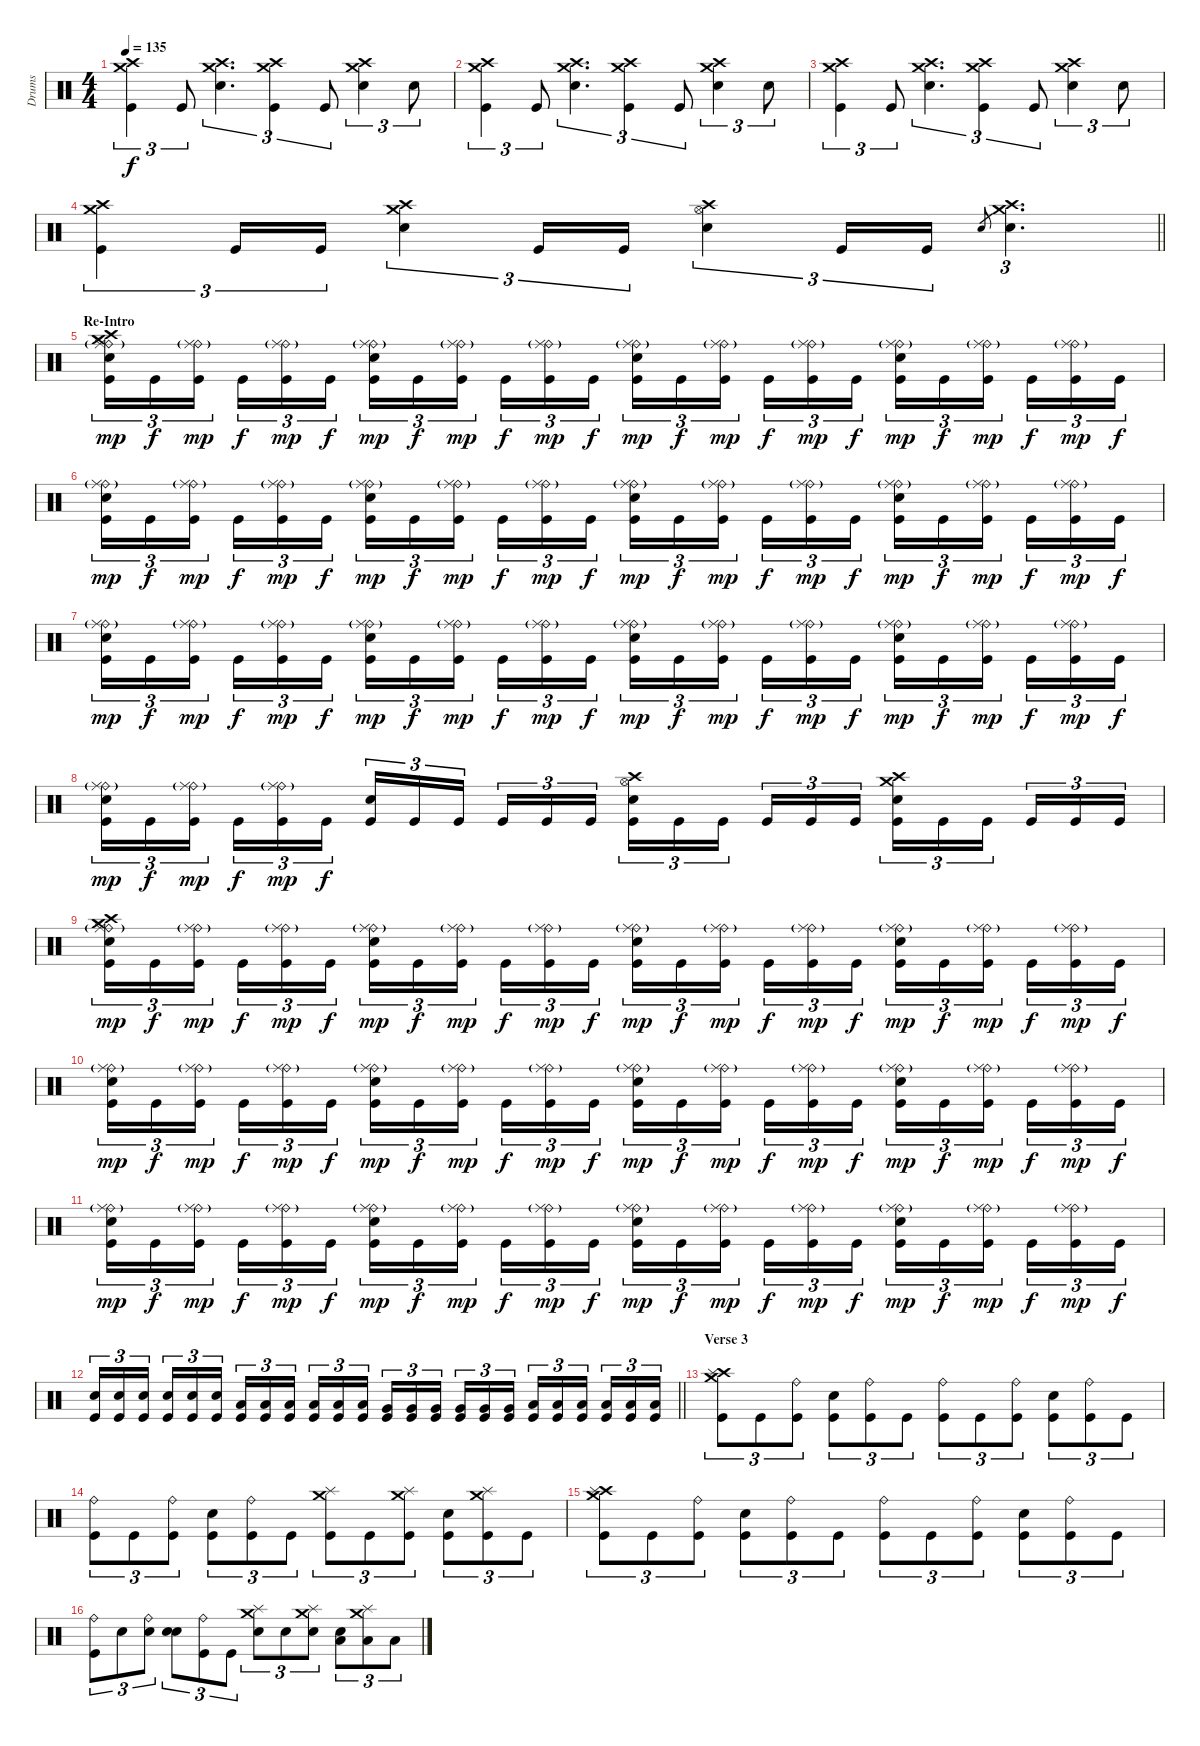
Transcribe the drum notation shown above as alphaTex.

\track ("Drums" "Drums") {instrument percussion}
\staff {score}
\articulation defaults
\ts (4 4)
\tempo 135
\clef neutral
\ks c
("Crash medium (hit)" "Crash high (hit)" "Kick (hit)").4{tu (3 2) dy f} "Kick (hit)".8{tu (3 2)} ("Crash medium (hit)" "Crash high (hit)" "Electric Snare (hit)").4{d tu (3 2)} ("Crash medium (hit)" "Crash high (hit)" "Kick (hit)").4{tu (3 2)} "Kick (hit)".8{tu (3 2)} ("Crash medium (hit)" "Crash high (hit)" "Electric Snare (hit)").4{tu (3 2)} "Electric Snare (hit)".8{tu (3 2)} |
("Crash medium (hit)" "Crash high (hit)" "Kick (hit)").4{tu (3 2)} "Kick (hit)".8{tu (3 2)} ("Crash medium (hit)" "Crash high (hit)" "Electric Snare (hit)").4{d tu (3 2)} ("Crash medium (hit)" "Crash high (hit)" "Kick (hit)").4{tu (3 2)} "Kick (hit)".8{tu (3 2)} ("Crash medium (hit)" "Crash high (hit)" "Electric Snare (hit)").4{tu (3 2)} "Electric Snare (hit)".8{tu (3 2)} |
("Crash medium (hit)" "Crash high (hit)" "Kick (hit)").4{tu (3 2)} "Kick (hit)".8{tu (3 2)} ("Crash medium (hit)" "Crash high (hit)" "Electric Snare (hit)").4{d tu (3 2)} ("Crash medium (hit)" "Crash high (hit)" "Kick (hit)").4{tu (3 2)} "Kick (hit)".8{tu (3 2)} ("Crash medium (hit)" "Crash high (hit)" "Electric Snare (hit)").4{tu (3 2)} "Electric Snare (hit)".8{tu (3 2)} |
\barLineRight lightlight
("Crash medium (hit)" "Crash high (hit)" "Kick (hit)").4{tu (3 2)} "Kick (hit)".16{tu (3 2)} "Kick (hit)".16{tu (3 2)} ("Crash medium (hit)" "Crash high (hit)" "Electric Snare (hit)").4{tu (3 2)} "Kick (hit)".16{tu (3 2)} "Kick (hit)".16{tu (3 2)} ("Hi-Hat (open)" "Crash high (hit)" "Electric Snare (hit)").4{tu (3 2)} "Kick (hit)".16{tu (3 2)} "Kick (hit)".16{tu (3 2)} "Electric Snare (hit)".8{gr} ("Crash medium (hit)" "Crash high (hit)" "Electric Snare (hit)").4{d tu (3 2)} |
\section ("" "Re-Intro")
("Crash high (hit)" "Ride (bell)" "Ride (middle)"{g} "Crash medium (hit)" "Electric Snare (hit)" "Kick (hit)").16{tu (3 2) dy mp} "Kick (hit)".16{tu (3 2) dy f} ("Ride (bell)" "Ride (middle)"{g} "Kick (hit)").16{tu (3 2) dy mp beam splitsecondary} "Kick (hit)".16{tu (3 2) dy f} ("Ride (bell)" "Ride (middle)"{g} "Kick (hit)").16{tu (3 2) dy mp} "Kick (hit)".16{tu (3 2) dy f} ("Ride (bell)" "Ride (middle)"{g} "Electric Snare (hit)" "Kick (hit)").16{tu (3 2) dy mp} "Kick (hit)".16{tu (3 2) dy f} ("Ride (bell)" "Ride (middle)"{g} "Kick (hit)").16{tu (3 2) dy mp beam splitsecondary} "Kick (hit)".16{tu (3 2) dy f} ("Ride (bell)" "Ride (middle)"{g} "Kick (hit)").16{tu (3 2) dy mp} "Kick (hit)".16{tu (3 2) dy f} ("Ride (bell)" "Ride (middle)"{g} "Electric Snare (hit)" "Kick (hit)").16{tu (3 2) dy mp} "Kick (hit)".16{tu (3 2) dy f} ("Ride (bell)" "Ride (middle)"{g} "Kick (hit)").16{tu (3 2) dy mp beam splitsecondary} "Kick (hit)".16{tu (3 2) dy f} ("Ride (bell)" "Ride (middle)"{g} "Kick (hit)").16{tu (3 2) dy mp} "Kick (hit)".16{tu (3 2) dy f} ("Ride (bell)" "Ride (middle)"{g} "Electric Snare (hit)" "Kick (hit)").16{tu (3 2) dy mp} "Kick (hit)".16{tu (3 2) dy f} ("Ride (bell)" "Ride (middle)"{g} "Kick (hit)").16{tu (3 2) dy mp beam splitsecondary} "Kick (hit)".16{tu (3 2) dy f} ("Ride (bell)" "Ride (middle)"{g} "Kick (hit)").16{tu (3 2) dy mp} "Kick (hit)".16{tu (3 2) dy f} |
("Ride (bell)" "Ride (middle)"{g} "Electric Snare (hit)" "Kick (hit)").16{tu (3 2) dy mp} "Kick (hit)".16{tu (3 2) dy f} ("Ride (bell)" "Ride (middle)"{g} "Kick (hit)").16{tu (3 2) dy mp beam splitsecondary} "Kick (hit)".16{tu (3 2) dy f} ("Ride (bell)" "Ride (middle)"{g} "Kick (hit)").16{tu (3 2) dy mp} "Kick (hit)".16{tu (3 2) dy f} ("Ride (bell)" "Ride (middle)"{g} "Electric Snare (hit)" "Kick (hit)").16{tu (3 2) dy mp} "Kick (hit)".16{tu (3 2) dy f} ("Ride (bell)" "Ride (middle)"{g} "Kick (hit)").16{tu (3 2) dy mp beam splitsecondary} "Kick (hit)".16{tu (3 2) dy f} ("Ride (bell)" "Ride (middle)"{g} "Kick (hit)").16{tu (3 2) dy mp} "Kick (hit)".16{tu (3 2) dy f} ("Ride (bell)" "Ride (middle)"{g} "Electric Snare (hit)" "Kick (hit)").16{tu (3 2) dy mp} "Kick (hit)".16{tu (3 2) dy f} ("Ride (bell)" "Ride (middle)"{g} "Kick (hit)").16{tu (3 2) dy mp beam splitsecondary} "Kick (hit)".16{tu (3 2) dy f} ("Ride (bell)" "Ride (middle)"{g} "Kick (hit)").16{tu (3 2) dy mp} "Kick (hit)".16{tu (3 2) dy f} ("Ride (bell)" "Ride (middle)"{g} "Electric Snare (hit)" "Kick (hit)").16{tu (3 2) dy mp} "Kick (hit)".16{tu (3 2) dy f} ("Ride (bell)" "Ride (middle)"{g} "Kick (hit)").16{tu (3 2) dy mp beam splitsecondary} "Kick (hit)".16{tu (3 2) dy f} ("Ride (bell)" "Ride (middle)"{g} "Kick (hit)").16{tu (3 2) dy mp} "Kick (hit)".16{tu (3 2) dy f} |
("Ride (bell)" "Ride (middle)"{g} "Electric Snare (hit)" "Kick (hit)").16{tu (3 2) dy mp} "Kick (hit)".16{tu (3 2) dy f} ("Ride (bell)" "Ride (middle)"{g} "Kick (hit)").16{tu (3 2) dy mp beam splitsecondary} "Kick (hit)".16{tu (3 2) dy f} ("Ride (bell)" "Ride (middle)"{g} "Kick (hit)").16{tu (3 2) dy mp} "Kick (hit)".16{tu (3 2) dy f} ("Ride (bell)" "Ride (middle)"{g} "Electric Snare (hit)" "Kick (hit)").16{tu (3 2) dy mp} "Kick (hit)".16{tu (3 2) dy f} ("Ride (bell)" "Ride (middle)"{g} "Kick (hit)").16{tu (3 2) dy mp beam splitsecondary} "Kick (hit)".16{tu (3 2) dy f} ("Ride (bell)" "Ride (middle)"{g} "Kick (hit)").16{tu (3 2) dy mp} "Kick (hit)".16{tu (3 2) dy f} ("Ride (bell)" "Ride (middle)"{g} "Electric Snare (hit)" "Kick (hit)").16{tu (3 2) dy mp} "Kick (hit)".16{tu (3 2) dy f} ("Ride (bell)" "Ride (middle)"{g} "Kick (hit)").16{tu (3 2) dy mp beam splitsecondary} "Kick (hit)".16{tu (3 2) dy f} ("Ride (bell)" "Ride (middle)"{g} "Kick (hit)").16{tu (3 2) dy mp} "Kick (hit)".16{tu (3 2) dy f} ("Ride (bell)" "Ride (middle)"{g} "Electric Snare (hit)" "Kick (hit)").16{tu (3 2) dy mp} "Kick (hit)".16{tu (3 2) dy f} ("Ride (bell)" "Ride (middle)"{g} "Kick (hit)").16{tu (3 2) dy mp beam splitsecondary} "Kick (hit)".16{tu (3 2) dy f} ("Ride (bell)" "Ride (middle)"{g} "Kick (hit)").16{tu (3 2) dy mp} "Kick (hit)".16{tu (3 2) dy f} |
("Ride (bell)" "Ride (middle)"{g} "Electric Snare (hit)" "Kick (hit)").16{tu (3 2) dy mp} "Kick (hit)".16{tu (3 2) dy f} ("Ride (bell)" "Ride (middle)"{g} "Kick (hit)").16{tu (3 2) dy mp beam splitsecondary} "Kick (hit)".16{tu (3 2) dy f} ("Ride (bell)" "Ride (middle)"{g} "Kick (hit)").16{tu (3 2) dy mp} "Kick (hit)".16{tu (3 2) dy f} ("Electric Snare (hit)" "Kick (hit)").16{tu (3 2)} "Kick (hit)".16{tu (3 2)} "Kick (hit)".16{tu (3 2) beam splitsecondary} "Kick (hit)".16{tu (3 2)} "Kick (hit)".16{tu (3 2)} "Kick (hit)".16{tu (3 2)} ("Hi-Hat (open)" "Crash high (hit)" "Electric Snare (hit)" "Kick (hit)").16{tu (3 2)} "Kick (hit)".16{tu (3 2)} "Kick (hit)".16{tu (3 2) beam splitsecondary} "Kick (hit)".16{tu (3 2)} "Kick (hit)".16{tu (3 2)} "Kick (hit)".16{tu (3 2)} ("Crash medium (hit)" "Crash high (hit)" "Electric Snare (hit)" "Kick (hit)").16{tu (3 2)} "Kick (hit)".16{tu (3 2)} "Kick (hit)".16{tu (3 2) beam splitsecondary} "Kick (hit)".16{tu (3 2)} "Kick (hit)".16{tu (3 2)} "Kick (hit)".16{tu (3 2)} |
("Crash high (hit)" "Ride (bell)" "Ride (middle)"{g} "Crash medium (hit)" "Electric Snare (hit)" "Kick (hit)").16{tu (3 2) dy mp} "Kick (hit)".16{tu (3 2) dy f} ("Ride (bell)" "Ride (middle)"{g} "Kick (hit)").16{tu (3 2) dy mp beam splitsecondary} "Kick (hit)".16{tu (3 2) dy f} ("Ride (bell)" "Ride (middle)"{g} "Kick (hit)").16{tu (3 2) dy mp} "Kick (hit)".16{tu (3 2) dy f} ("Ride (bell)" "Ride (middle)"{g} "Electric Snare (hit)" "Kick (hit)").16{tu (3 2) dy mp} "Kick (hit)".16{tu (3 2) dy f} ("Ride (bell)" "Ride (middle)"{g} "Kick (hit)").16{tu (3 2) dy mp beam splitsecondary} "Kick (hit)".16{tu (3 2) dy f} ("Ride (bell)" "Ride (middle)"{g} "Kick (hit)").16{tu (3 2) dy mp} "Kick (hit)".16{tu (3 2) dy f} ("Ride (bell)" "Ride (middle)"{g} "Electric Snare (hit)" "Kick (hit)").16{tu (3 2) dy mp} "Kick (hit)".16{tu (3 2) dy f} ("Ride (bell)" "Ride (middle)"{g} "Kick (hit)").16{tu (3 2) dy mp beam splitsecondary} "Kick (hit)".16{tu (3 2) dy f} ("Ride (bell)" "Ride (middle)"{g} "Kick (hit)").16{tu (3 2) dy mp} "Kick (hit)".16{tu (3 2) dy f} ("Ride (bell)" "Ride (middle)"{g} "Electric Snare (hit)" "Kick (hit)").16{tu (3 2) dy mp} "Kick (hit)".16{tu (3 2) dy f} ("Ride (bell)" "Ride (middle)"{g} "Kick (hit)").16{tu (3 2) dy mp beam splitsecondary} "Kick (hit)".16{tu (3 2) dy f} ("Ride (bell)" "Ride (middle)"{g} "Kick (hit)").16{tu (3 2) dy mp} "Kick (hit)".16{tu (3 2) dy f} |
("Ride (bell)" "Ride (middle)"{g} "Electric Snare (hit)" "Kick (hit)").16{tu (3 2) dy mp} "Kick (hit)".16{tu (3 2) dy f} ("Ride (bell)" "Ride (middle)"{g} "Kick (hit)").16{tu (3 2) dy mp beam splitsecondary} "Kick (hit)".16{tu (3 2) dy f} ("Ride (bell)" "Ride (middle)"{g} "Kick (hit)").16{tu (3 2) dy mp} "Kick (hit)".16{tu (3 2) dy f} ("Ride (bell)" "Ride (middle)"{g} "Electric Snare (hit)" "Kick (hit)").16{tu (3 2) dy mp} "Kick (hit)".16{tu (3 2) dy f} ("Ride (bell)" "Ride (middle)"{g} "Kick (hit)").16{tu (3 2) dy mp beam splitsecondary} "Kick (hit)".16{tu (3 2) dy f} ("Ride (bell)" "Ride (middle)"{g} "Kick (hit)").16{tu (3 2) dy mp} "Kick (hit)".16{tu (3 2) dy f} ("Ride (bell)" "Ride (middle)"{g} "Electric Snare (hit)" "Kick (hit)").16{tu (3 2) dy mp} "Kick (hit)".16{tu (3 2) dy f} ("Ride (bell)" "Ride (middle)"{g} "Kick (hit)").16{tu (3 2) dy mp beam splitsecondary} "Kick (hit)".16{tu (3 2) dy f} ("Ride (bell)" "Ride (middle)"{g} "Kick (hit)").16{tu (3 2) dy mp} "Kick (hit)".16{tu (3 2) dy f} ("Ride (bell)" "Ride (middle)"{g} "Electric Snare (hit)" "Kick (hit)").16{tu (3 2) dy mp} "Kick (hit)".16{tu (3 2) dy f} ("Ride (bell)" "Ride (middle)"{g} "Kick (hit)").16{tu (3 2) dy mp beam splitsecondary} "Kick (hit)".16{tu (3 2) dy f} ("Ride (bell)" "Ride (middle)"{g} "Kick (hit)").16{tu (3 2) dy mp} "Kick (hit)".16{tu (3 2) dy f} |
("Ride (bell)" "Ride (middle)"{g} "Electric Snare (hit)" "Kick (hit)").16{tu (3 2) dy mp} "Kick (hit)".16{tu (3 2) dy f} ("Ride (bell)" "Ride (middle)"{g} "Kick (hit)").16{tu (3 2) dy mp beam splitsecondary} "Kick (hit)".16{tu (3 2) dy f} ("Ride (bell)" "Ride (middle)"{g} "Kick (hit)").16{tu (3 2) dy mp} "Kick (hit)".16{tu (3 2) dy f} ("Ride (bell)" "Ride (middle)"{g} "Electric Snare (hit)" "Kick (hit)").16{tu (3 2) dy mp} "Kick (hit)".16{tu (3 2) dy f} ("Ride (bell)" "Ride (middle)"{g} "Kick (hit)").16{tu (3 2) dy mp beam splitsecondary} "Kick (hit)".16{tu (3 2) dy f} ("Ride (bell)" "Ride (middle)"{g} "Kick (hit)").16{tu (3 2) dy mp} "Kick (hit)".16{tu (3 2) dy f} ("Ride (bell)" "Ride (middle)"{g} "Electric Snare (hit)" "Kick (hit)").16{tu (3 2) dy mp} "Kick (hit)".16{tu (3 2) dy f} ("Ride (bell)" "Ride (middle)"{g} "Kick (hit)").16{tu (3 2) dy mp beam splitsecondary} "Kick (hit)".16{tu (3 2) dy f} ("Ride (bell)" "Ride (middle)"{g} "Kick (hit)").16{tu (3 2) dy mp} "Kick (hit)".16{tu (3 2) dy f} ("Ride (bell)" "Ride (middle)"{g} "Electric Snare (hit)" "Kick (hit)").16{tu (3 2) dy mp} "Kick (hit)".16{tu (3 2) dy f} ("Ride (bell)" "Ride (middle)"{g} "Kick (hit)").16{tu (3 2) dy mp beam splitsecondary} "Kick (hit)".16{tu (3 2) dy f} ("Ride (bell)" "Ride (middle)"{g} "Kick (hit)").16{tu (3 2) dy mp} "Kick (hit)".16{tu (3 2) dy f} |
\barLineRight lightlight
("Kick (hit)" "Electric Snare (hit)").16{tu (3 2)} ("Kick (hit)" "Electric Snare (hit)").16{tu (3 2)} ("Kick (hit)" "Electric Snare (hit)").16{tu (3 2) beam splitsecondary} ("Kick (hit)" "Electric Snare (hit)").16{tu (3 2)} ("Kick (hit)" "Electric Snare (hit)").16{tu (3 2)} ("Kick (hit)" "Electric Snare (hit)").16{tu (3 2)} ("Kick (hit)" "Low Tom (hit)").16{tu (3 2)} ("Kick (hit)" "Low Tom (hit)").16{tu (3 2)} ("Kick (hit)" "Low Tom (hit)").16{tu (3 2) beam splitsecondary} ("Kick (hit)" "Low Tom (hit)").16{tu (3 2)} ("Kick (hit)" "Low Tom (hit)").16{tu (3 2)} ("Kick (hit)" "Low Tom (hit)").16{tu (3 2)} ("Kick (hit)" "Very Low Tom (hit)").16{tu (3 2)} ("Kick (hit)" "Very Low Tom (hit)").16{tu (3 2)} ("Kick (hit)" "Very Low Tom (hit)").16{tu (3 2) beam splitsecondary} ("Kick (hit)" "Very Low Tom (hit)").16{tu (3 2)} ("Kick (hit)" "Very Low Tom (hit)").16{tu (3 2)} ("Kick (hit)" "Very Low Tom (hit)").16{tu (3 2)} ("Kick (hit)" "Low Floor Tom (hit)").16{tu (3 2)} ("Kick (hit)" "Low Floor Tom (hit)").16{tu (3 2)} ("Kick (hit)" "Low Floor Tom (hit)").16{tu (3 2) beam splitsecondary} ("Kick (hit)" "Low Floor Tom (hit)").16{tu (3 2)} ("Kick (hit)" "Low Floor Tom (hit)").16{tu (3 2)} ("Kick (hit)" "Low Floor Tom (hit)").16{tu (3 2)} |
\section ("" "Verse 3")
("Crash high (hit)" "Crash medium (hit)" "Splash (hit)" "Kick (hit)").8{tu (3 2)} "Kick (hit)".8{tu (3 2)} ("Ride (bell)" "Kick (hit)").8{tu (3 2)} ("Electric Snare (hit)" "Kick (hit)").8{tu (3 2)} ("Ride (bell)" "Kick (hit)").8{tu (3 2)} "Kick (hit)".8{tu (3 2)} ("Ride (bell)" "Kick (hit)").8{tu (3 2)} "Kick (hit)".8{tu (3 2)} ("Ride (bell)" "Kick (hit)").8{tu (3 2)} ("Electric Snare (hit)" "Kick (hit)").8{tu (3 2)} ("Ride (bell)" "Kick (hit)").8{tu (3 2)} "Kick (hit)".8{tu (3 2)} |
("Ride (bell)" "Kick (hit)").8{tu (3 2)} "Kick (hit)".8{tu (3 2)} ("Ride (bell)" "Kick (hit)").8{tu (3 2)} ("Electric Snare (hit)" "Kick (hit)").8{tu (3 2)} ("Ride (bell)" "Kick (hit)").8{tu (3 2)} "Kick (hit)".8{tu (3 2)} ("Crash medium (hit)" "Splash (hit)" "Kick (hit)").8{tu (3 2)} "Kick (hit)".8{tu (3 2)} ("Crash medium (hit)" "Splash (hit)" "Kick (hit)").8{tu (3 2)} ("Electric Snare (hit)" "Kick (hit)").8{tu (3 2)} ("Crash medium (hit)" "Splash (hit)" "Kick (hit)").8{tu (3 2)} "Kick (hit)".8{tu (3 2)} |
("Crash high (hit)" "Crash medium (hit)" "Splash (hit)" "Kick (hit)").8{tu (3 2)} "Kick (hit)".8{tu (3 2)} ("Ride (bell)" "Kick (hit)").8{tu (3 2)} ("Electric Snare (hit)" "Kick (hit)").8{tu (3 2)} ("Ride (bell)" "Kick (hit)").8{tu (3 2)} "Kick (hit)".8{tu (3 2)} ("Ride (bell)" "Kick (hit)").8{tu (3 2)} "Kick (hit)".8{tu (3 2)} ("Ride (bell)" "Kick (hit)").8{tu (3 2)} ("Electric Snare (hit)" "Kick (hit)").8{tu (3 2)} ("Ride (bell)" "Kick (hit)").8{tu (3 2)} "Kick (hit)".8{tu (3 2)} |
("Ride (bell)" "Kick (hit)").8{tu (3 2)} "Electric Snare (hit)".8{tu (3 2)} ("Ride (bell)" "Electric Snare (hit)").8{tu (3 2)} ("Electric Snare (hit)" "Electric Snare (hit)").8{tu (3 2)} ("Ride (bell)" "Kick (hit)").8{tu (3 2)} "Kick (hit)".8{tu (3 2)} ("Crash medium (hit)" "Splash (hit)" "Electric Snare (hit)").8{tu (3 2)} "Electric Snare (hit)".8{tu (3 2)} ("Crash medium (hit)" "Splash (hit)" "Electric Snare (hit)").8{tu (3 2)} ("Electric Snare (hit)" "Low Floor Tom (hit)").8{tu (3 2)} ("Crash medium (hit)" "Splash (hit)" "Low Floor Tom (hit)").8{tu (3 2)} "Low Floor Tom (hit)".8{tu (3 2)}
